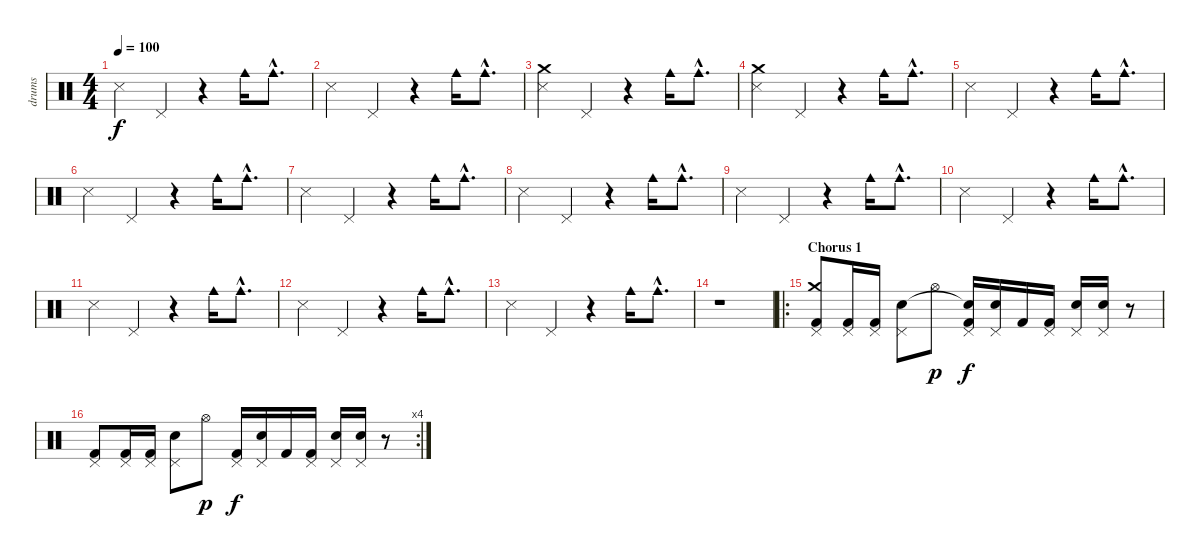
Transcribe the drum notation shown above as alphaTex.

\track ("drums" "drums") {instrument percussion}
\staff {score}
\articulation defaults
\ts (4 4)
\tempo 100
\clef neutral
\ks c "Snare (side stick) 3".4{dy f} "Pedal Hi-Hat (hit)".4
r.4 "Cowbell medium (hit)".16 "Cowbell medium (hit)"{hac}.8{d} |
"Snare (side stick) 3".4 "Pedal Hi-Hat (hit)".4 r.4 "Cowbell medium (hit)".16 "Cowbell medium (hit)"{hac}.8{d} |
("Crash medium (hit)" "Snare (side stick) 3").4 "Pedal Hi-Hat (hit)".4 r.4 "Cowbell medium (hit)".16 "Cowbell medium (hit)"{hac}.8{d} |
("Crash medium (hit)" "Snare (side stick) 3").4 "Pedal Hi-Hat (hit)".4 r.4 "Cowbell medium (hit)".16 "Cowbell medium (hit)"{hac}.8{d} |
"Snare (side stick) 3".4 "Pedal Hi-Hat (hit)".4 r.4 "Cowbell medium (hit)".16 "Cowbell medium (hit)"{hac}.8{d} |
"Snare (side stick) 3".4 "Pedal Hi-Hat (hit)".4 r.4 "Cowbell medium (hit)".16 "Cowbell medium (hit)"{hac}.8{d} |
"Snare (side stick) 3".4 "Pedal Hi-Hat (hit)".4 r.4 "Cowbell medium (hit)".16 "Cowbell medium (hit)"{hac}.8{d} |
"Snare (side stick) 3".4 "Pedal Hi-Hat (hit)".4 r.4 "Cowbell medium (hit)".16 "Cowbell medium (hit)"{hac}.8{d} |
"Snare (side stick) 3".4 "Pedal Hi-Hat (hit)".4 r.4 "Cowbell medium (hit)".16 "Cowbell medium (hit)"{hac}.8{d} |
"Snare (side stick) 3".4 "Pedal Hi-Hat (hit)".4 r.4 "Cowbell medium (hit)".16 "Cowbell medium (hit)"{hac}.8{d} |
"Snare (side stick) 3".4 "Pedal Hi-Hat (hit)".4 r.4 "Cowbell medium (hit)".16 "Cowbell medium (hit)"{hac}.8{d} |
"Snare (side stick) 3".4 "Pedal Hi-Hat (hit)".4 r.4 "Cowbell medium (hit)".16 "Cowbell medium (hit)"{hac}.8{d} |
"Snare (side stick) 3".4 "Pedal Hi-Hat (hit)".4 r.4 "Cowbell medium (hit)".16 "Cowbell medium (hit)"{hac}.8{d} |
r.1 |
\ro
\section ("" "Chorus 1")
("Pedal Hi-Hat (hit)" "Crash medium (hit)" "Kick (hit) 2").8 ("Pedal Hi-Hat (hit)" "Kick (hit) 2").16 ("Pedal Hi-Hat (hit)" "Kick (hit) 2").16 ("Pedal Hi-Hat (hit)" "Electric Snare (hit)").8 "Hi-Hat (open)".8{dy p} ("Pedal Hi-Hat (hit)" "Snare (hit)"{t} "Kick (hit) 2").16{dy f} ("Pedal Hi-Hat (hit)" "Electric Snare (hit)").16 "Kick (hit) 2".16 ("Pedal Hi-Hat (hit)" "Kick (hit) 2").16 ("Pedal Hi-Hat (hit)" "Electric Snare (hit)").16 ("Pedal Hi-Hat (hit)" "Electric Snare (hit)").16 r.8 |
\rc 4
("Pedal Hi-Hat (hit)" "Kick (hit) 2").8 ("Pedal Hi-Hat (hit)" "Kick (hit) 2").16 ("Pedal Hi-Hat (hit)" "Kick (hit) 2").16 ("Pedal Hi-Hat (hit)" "Electric Snare (hit)").8 "Hi-Hat (open)".8{dy p} ("Pedal Hi-Hat (hit)" "Kick (hit) 2").16{dy f} ("Pedal Hi-Hat (hit)" "Electric Snare (hit)").16 "Kick (hit) 2".16 ("Pedal Hi-Hat (hit)" "Kick (hit) 2").16 ("Pedal Hi-Hat (hit)" "Electric Snare (hit)").16 ("Pedal Hi-Hat (hit)" "Electric Snare (hit)").16 r.8
